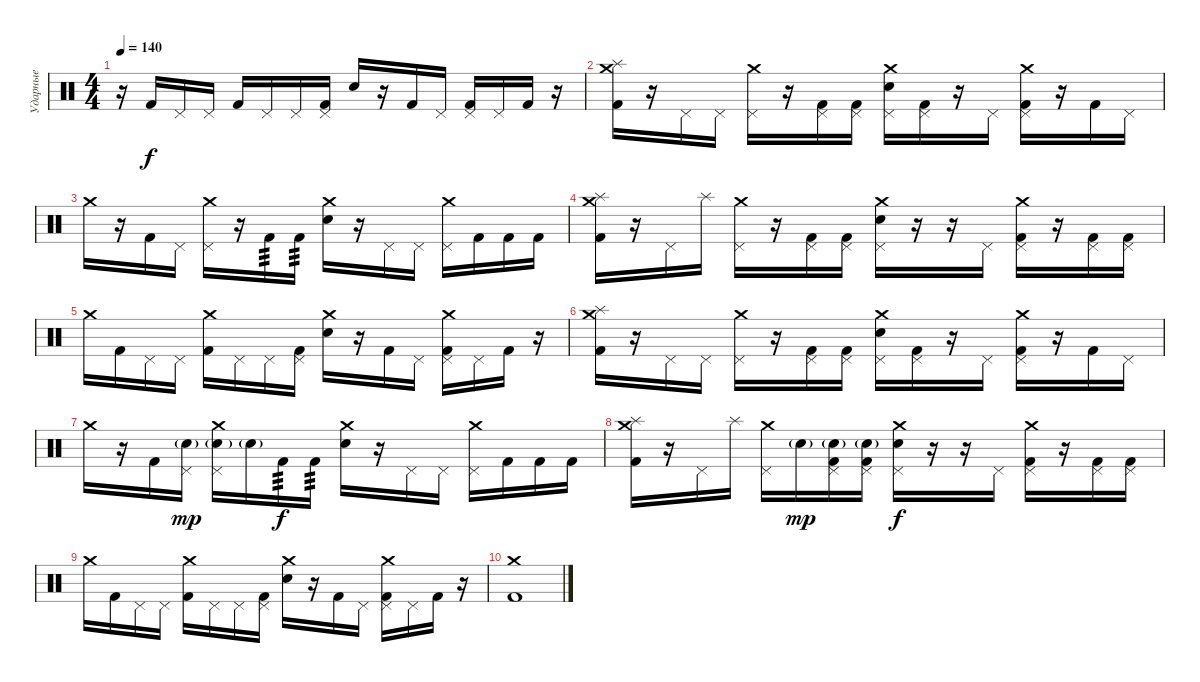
\track ("Ударные" "Ударные") {instrument percussion}
\staff {score}
\articulation defaults
\ts (4 4)
\tempo 140
\clef neutral
\ks c
r.16{dy f} "Kick (hit) 2".16 "Pedal Hi-Hat (hit)".16 "Pedal Hi-Hat (hit)".16 "Kick (hit) 2".16 "Pedal Hi-Hat (hit)".16 "Pedal Hi-Hat (hit)".16 ("Pedal Hi-Hat (hit)" "Kick (hit) 2").16 "Electric Snare (hit)".16 r.16 "Kick (hit) 2".16 "Pedal Hi-Hat (hit)".16 ("Pedal Hi-Hat (hit)" "Kick (hit) 2").16 "Pedal Hi-Hat (hit)".16 "Kick (hit) 2".16 r.16 |
("Crash medium (hit)" "Splash (hit)" "Kick (hit) 2").16 r.16 "Pedal Hi-Hat (hit)".16 "Pedal Hi-Hat (hit)".16 ("Crash medium (hit)" "Pedal Hi-Hat (hit)").16 r.16 ("Pedal Hi-Hat (hit)" "Kick (hit) 2").16 ("Pedal Hi-Hat (hit)" "Kick (hit) 2").16 ("Crash medium (hit)" "Pedal Hi-Hat (hit)" "Electric Snare (hit)").16 ("Pedal Hi-Hat (hit)" "Kick (hit) 2").16 r.16 "Pedal Hi-Hat (hit)".16 ("Crash medium (hit)" "Pedal Hi-Hat (hit)" "Kick (hit) 2").16 r.16 "Kick (hit) 2".16 "Pedal Hi-Hat (hit)".16 |
"Crash medium (hit)".16 r.16 "Kick (hit) 2".16 "Pedal Hi-Hat (hit)".16 ("Crash medium (hit)" "Pedal Hi-Hat (hit)").16 r.16 "Kick (hit) 2".16{tp 3} "Kick (hit) 2".16{tp 3} ("Crash medium (hit)" "Electric Snare (hit)").16 r.16 "Pedal Hi-Hat (hit)".16 "Pedal Hi-Hat (hit)".16 ("Crash medium (hit)" "Pedal Hi-Hat (hit)").16 "Kick (hit) 2".16 "Kick (hit) 2".16 "Kick (hit) 2".16 |
("Crash medium (hit)" "Splash (hit)" "Kick (hit) 2").16 r.16 "Pedal Hi-Hat (hit)".16 "Splash (hit)".16 ("Crash medium (hit)" "Pedal Hi-Hat (hit)").16 r.16 ("Pedal Hi-Hat (hit)" "Kick (hit) 2").16 ("Pedal Hi-Hat (hit)" "Kick (hit) 2").16 ("Crash medium (hit)" "Pedal Hi-Hat (hit)" "Electric Snare (hit)").16 r.16 r.16 "Pedal Hi-Hat (hit)".16 ("Crash medium (hit)" "Pedal Hi-Hat (hit)" "Kick (hit) 2").16 r.16 ("Pedal Hi-Hat (hit)" "Kick (hit) 2").16 ("Pedal Hi-Hat (hit)" "Kick (hit) 2").16 |
"Crash medium (hit)".16 "Kick (hit) 2".16 "Pedal Hi-Hat (hit)".16 "Pedal Hi-Hat (hit)".16 ("Crash medium (hit)" "Kick (hit) 2").16 "Pedal Hi-Hat (hit)".16 "Pedal Hi-Hat (hit)".16 ("Pedal Hi-Hat (hit)" "Kick (hit) 2").16 ("Crash medium (hit)" "Electric Snare (hit)").16 r.16 "Kick (hit) 2".16 "Pedal Hi-Hat (hit)".16 ("Crash medium (hit)" "Pedal Hi-Hat (hit)" "Kick (hit) 2").16 "Pedal Hi-Hat (hit)".16 "Kick (hit) 2".16 r.16 |
("Crash medium (hit)" "Splash (hit)" "Kick (hit) 2").16 r.16 "Pedal Hi-Hat (hit)".16 "Pedal Hi-Hat (hit)".16 ("Crash medium (hit)" "Pedal Hi-Hat (hit)").16 r.16 ("Pedal Hi-Hat (hit)" "Kick (hit) 2").16 ("Pedal Hi-Hat (hit)" "Kick (hit) 2").16 ("Crash medium (hit)" "Pedal Hi-Hat (hit)" "Electric Snare (hit)").16 ("Pedal Hi-Hat (hit)" "Kick (hit) 2").16 r.16 "Pedal Hi-Hat (hit)".16 ("Crash medium (hit)" "Pedal Hi-Hat (hit)" "Kick (hit) 2").16 r.16 "Kick (hit) 2".16 "Pedal Hi-Hat (hit)".16 |
"Crash medium (hit)".16 r.16 "Kick (hit) 2".16 ("Pedal Hi-Hat (hit)" "Electric Snare (hit)"{g}).16{dy mp} ("Crash medium (hit)" "Pedal Hi-Hat (hit)" "Electric Snare (hit)"{g}).16 "Electric Snare (hit)"{g}.16 "Kick (hit) 2".16{tp 3 dy f} "Kick (hit) 2".16{tp 3} ("Crash medium (hit)" "Electric Snare (hit)").16 r.16 "Pedal Hi-Hat (hit)".16 "Pedal Hi-Hat (hit)".16 ("Crash medium (hit)" "Pedal Hi-Hat (hit)").16 "Kick (hit) 2".16 "Kick (hit) 2".16 "Kick (hit) 2".16 |
("Crash medium (hit)" "Splash (hit)" "Kick (hit) 2").16 r.16 "Pedal Hi-Hat (hit)".16 "Splash (hit)".16 ("Crash medium (hit)" "Pedal Hi-Hat (hit)").16 "Electric Snare (hit)"{g}.16{dy mp} ("Pedal Hi-Hat (hit)" "Electric Snare (hit)"{g} "Kick (hit) 2").16 ("Pedal Hi-Hat (hit)" "Electric Snare (hit)"{g} "Kick (hit) 2").16 ("Crash medium (hit)" "Pedal Hi-Hat (hit)" "Electric Snare (hit)").16{dy f} r.16 r.16 "Pedal Hi-Hat (hit)".16 ("Crash medium (hit)" "Pedal Hi-Hat (hit)" "Kick (hit) 2").16 r.16 ("Pedal Hi-Hat (hit)" "Kick (hit) 2").16 ("Pedal Hi-Hat (hit)" "Kick (hit) 2").16 |
"Crash medium (hit)".16 "Kick (hit) 2".16 "Pedal Hi-Hat (hit)".16 "Pedal Hi-Hat (hit)".16 ("Crash medium (hit)" "Kick (hit) 2").16 "Pedal Hi-Hat (hit)".16 "Pedal Hi-Hat (hit)".16 ("Pedal Hi-Hat (hit)" "Kick (hit) 2").16 ("Crash medium (hit)" "Electric Snare (hit)").16 r.16 "Kick (hit) 2".16 "Pedal Hi-Hat (hit)".16 ("Crash medium (hit)" "Pedal Hi-Hat (hit)" "Kick (hit) 2").16 "Pedal Hi-Hat (hit)".16 "Kick (hit) 2".16 r.16 |
("Crash medium (hit)" "Kick (hit) 2").1
